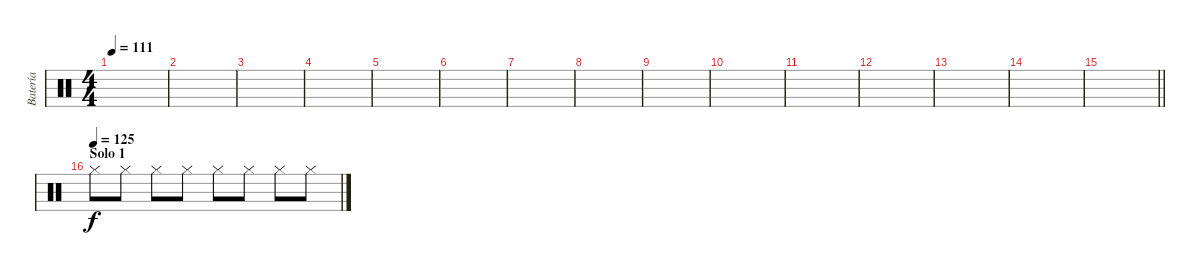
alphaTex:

\track ("Batería" "Batería") {instrument percussion}
\staff {score}
\articulation defaults
\ts (4 4)
\tempo 111
\clef neutral
\ks c
|
|
|
|
|
|
|
|
|
|
|
|
|
|
\barLineRight lightlight
|
\section ("" "Solo 1")
\tempo (125)
"Hi-Hat (closed)".8 "Hi-Hat (closed)".8 "Hi-Hat (closed)".8 "Hi-Hat (closed)".8 "Hi-Hat (closed)".8 "Hi-Hat (closed)".8 "Hi-Hat (closed)".8 "Hi-Hat (closed)".8
